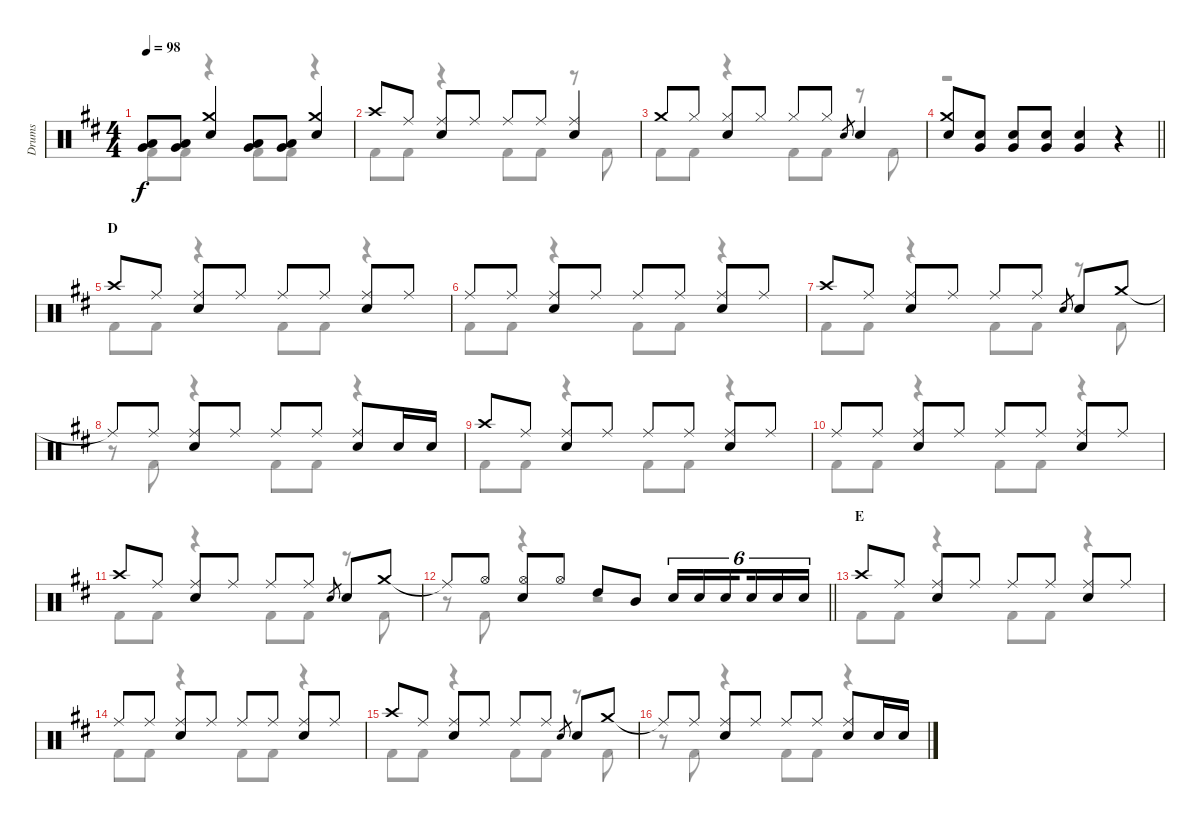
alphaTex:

\track ("Drums" "Drums") {instrument percussion}
\staff {score}
\articulation defaults
\voice
\ts (4 4)
\tempo 98
\clef neutral
\ks d
("Low Tom (hit)" "Very Low Tom (hit)").8{dy f} ("Low Tom (hit)" "Very Low Tom (hit)").8 ("Crash medium (hit)" "Snare (hit) 2").4 ("Low Tom (hit)" "Very Low Tom (hit)").8 ("Low Tom (hit)" "Very Low Tom (hit)").8 ("Crash medium (hit)" "Snare (hit) 2").4 |
"Crash high (hit)".8 "Ride (middle)".8 ("Ride (middle)" "Snare (hit) 2").8 "Ride (middle)".8 "Ride (middle)".8 "Ride (middle)".8 ("Ride (middle)" "Snare (hit) 2").4 |
"Crash medium (hit)".8 "Hi-Hat (closed)".8 ("Hi-Hat (closed)" "Snare (hit) 2").8 "Hi-Hat (closed)".8 "Hi-Hat (closed)".8 "Hi-Hat (closed)".8 "Snare (hit) 2".8{gr} "Snare (hit) 2".4 |
\barLineRight lightlight
("Crash medium (hit)" "Snare (hit) 2").8 ("Snare (hit) 2" "Very Low Tom (hit)").8 ("Snare (hit) 2" "Very Low Tom (hit)").8 ("Snare (hit) 2" "Very Low Tom (hit)").8 ("Snare (hit) 2" "Very Low Tom (hit)").4 r.4 |
\section ("" "D")
"Crash high (hit)".8 "Ride (middle)".8 ("Ride (middle)" "Snare (hit) 2").8 "Ride (middle)".8 "Ride (middle)".8 "Ride (middle)".8 ("Ride (middle)" "Snare (hit) 2").8 "Ride (middle)".8 |
"Ride (middle)".8 "Ride (middle)".8 ("Ride (middle)" "Snare (hit) 2").8 "Ride (middle)".8 "Ride (middle)".8 "Ride (middle)".8 ("Ride (middle)" "Snare (hit) 2").8 "Ride (middle)".8 |
"Crash high (hit)".8 "Ride (middle)".8 ("Ride (middle)" "Snare (hit) 2").8 "Ride (middle)".8 "Ride (middle)".8 "Ride (middle)".8 "Snare (hit) 2".8{gr} "Snare (hit) 2".8 "Crash medium (hit)".8 |
"Ride (middle)"{t}.8 "Ride (middle)".8 ("Ride (middle)" "Snare (hit) 2").8 "Ride (middle)".8 "Ride (middle)".8 "Ride (middle)".8 ("Ride (middle)" "Snare (hit) 2").8 "Snare (hit) 2".16 "Snare (hit) 2".16 |
"Crash high (hit)".8 "Ride (middle)".8 ("Ride (middle)" "Snare (hit) 2").8 "Ride (middle)".8 "Ride (middle)".8 "Ride (middle)".8 ("Ride (middle)" "Snare (hit) 2").8 "Ride (middle)".8 |
"Ride (middle)".8 "Ride (middle)".8 ("Ride (middle)" "Snare (hit) 2").8 "Ride (middle)".8 "Ride (middle)".8 "Ride (middle)".8 ("Ride (middle)" "Snare (hit) 2").8 "Ride (middle)".8 |
"Crash high (hit)".8 "Ride (middle)".8 ("Ride (middle)" "Snare (hit) 2").8 "Ride (middle)".8 "Ride (middle)".8 "Ride (middle)".8 "Snare (hit) 2".8{gr} "Snare (hit) 2".8 "Crash medium (hit)".8 |
\barLineRight lightlight "Ride (middle)"{t}.8 "Hi-Hat (open)".8
("Hi-Hat (open)" "Snare (hit) 2").8 "Hi-Hat (open)".8 "High Tom (hit)".8 "Mid Tom (hit)".8 "Snare (hit) 2".16{tu (6 4)} "Snare (hit) 2".16{tu (6 4)} "Snare (hit) 2".16{tu (6 4) beam splitsecondary} "Snare (hit) 2".16{tu (6 4)} "Snare (hit) 2".16{tu (6 4)} "Snare (hit) 2".16{tu (6 4)} |
\section ("" "E")
"Crash high (hit)".8 "Ride (middle)".8 ("Ride (middle)" "Snare (hit) 2").8 "Ride (middle)".8 "Ride (middle)".8 "Ride (middle)".8 ("Ride (middle)" "Snare (hit) 2").8 "Ride (middle)".8 |
"Ride (middle)".8 "Ride (middle)".8 ("Ride (middle)" "Snare (hit) 2").8 "Ride (middle)".8 "Ride (middle)".8 "Ride (middle)".8 ("Ride (middle)" "Snare (hit) 2").8 "Ride (middle)".8 |
"Crash high (hit)".8 "Ride (middle)".8 ("Ride (middle)" "Snare (hit) 2").8 "Ride (middle)".8 "Ride (middle)".8 "Ride (middle)".8 "Snare (hit) 2".8{gr} "Snare (hit) 2".8 "Crash medium (hit)".8 |
"Ride (middle)"{t}.8 "Ride (middle)".8 ("Ride (middle)" "Snare (hit) 2").8 "Ride (middle)".8 "Ride (middle)".8 "Ride (middle)".8 ("Ride (middle)" "Snare (hit) 2").8 "Snare (hit) 2".16 "Snare (hit) 2".16
\voice
\clef neutral
\ottava regular
\simile none
\ks d "Kick (hit) 2".8{dy f} "Kick (hit) 2".8
r.4 "Kick (hit) 2".8 "Kick (hit) 2".8 r.4 |
"Kick (hit) 2".8 "Kick (hit) 2".8 r.4 "Kick (hit) 2".8 "Kick (hit) 2".8 r.8 "Kick (hit) 2".8 |
"Kick (hit) 2".8 "Kick (hit) 2".8 r.4 "Kick (hit) 2".8 "Kick (hit) 2".8 r.8 "Kick (hit) 2".8 |
\barLineRight lightlight
r.1 |
"Kick (hit) 2".8 "Kick (hit) 2".8 r.4 "Kick (hit) 2".8 "Kick (hit) 2".8 r.4 |
"Kick (hit) 2".8 "Kick (hit) 2".8 r.4 "Kick (hit) 2".8 "Kick (hit) 2".8 r.4 |
"Kick (hit) 2".8 "Kick (hit) 2".8 r.4 "Kick (hit) 2".8 "Kick (hit) 2".8 r.8 "Kick (hit) 2".8 |
r.8 "Kick (hit) 2".8 r.4 "Kick (hit) 2".8 "Kick (hit) 2".8 r.4 |
"Kick (hit) 2".8 "Kick (hit) 2".8 r.4 "Kick (hit) 2".8 "Kick (hit) 2".8 r.4 |
"Kick (hit) 2".8 "Kick (hit) 2".8 r.4 "Kick (hit) 2".8 "Kick (hit) 2".8 r.4 |
"Kick (hit) 2".8 "Kick (hit) 2".8 r.4 "Kick (hit) 2".8 "Kick (hit) 2".8 r.8 "Kick (hit) 2".8 |
\barLineRight lightlight
r.8 "Kick (hit) 2".8 r.4 r.2 |
"Kick (hit) 2".8 "Kick (hit) 2".8 r.4 "Kick (hit) 2".8 "Kick (hit) 2".8 r.4 |
"Kick (hit) 2".8 "Kick (hit) 2".8 r.4 "Kick (hit) 2".8 "Kick (hit) 2".8 r.4 |
"Kick (hit) 2".8 "Kick (hit) 2".8 r.4 "Kick (hit) 2".8 "Kick (hit) 2".8 r.8 "Kick (hit) 2".8 |
r.8 "Kick (hit) 2".8 r.4 "Kick (hit) 2".8 "Kick (hit) 2".8 r.4
